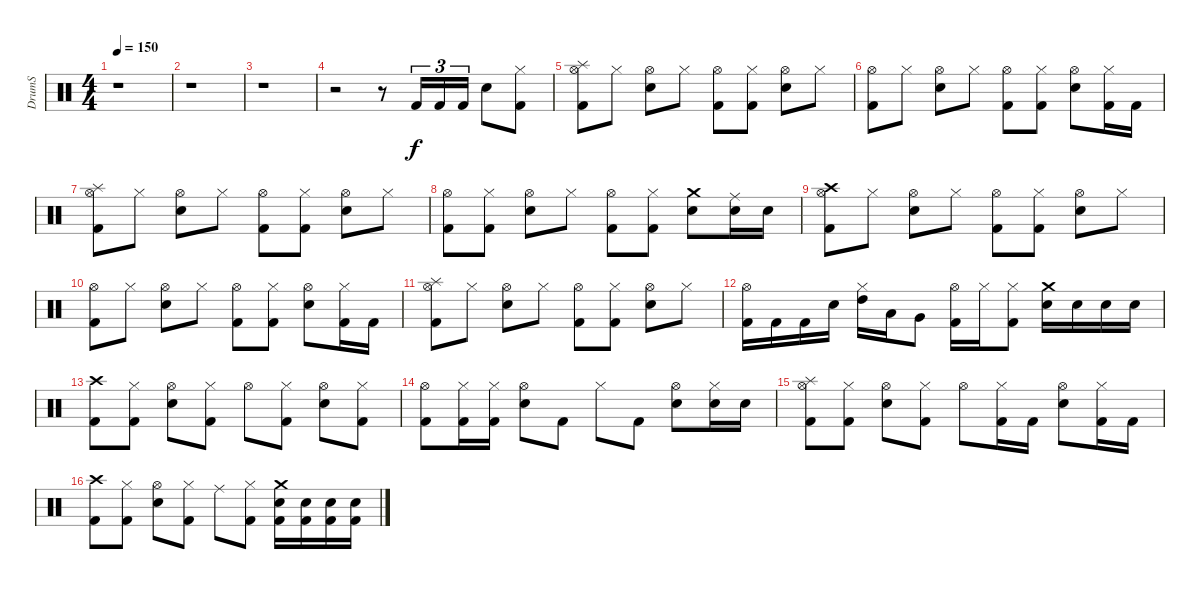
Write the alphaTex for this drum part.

\track ("DrumS" "DrumS") {instrument percussion}
\staff {score}
\articulation defaults
\ts (4 4)
\tempo 150
\clef neutral
\ks c
r.1{dy f} |
r.1 |
r.1 |
r.2 r.8 "Kick (hit) 2".16{tu (3 2)} "Kick (hit) 2".16{tu (3 2)} "Kick (hit) 2".16{tu (3 2)} "Snare (hit) 2".8 ("Hi-Hat (closed)" "Kick (hit) 2").8 |
("Splash (hit)" "Hi-Hat (open)" "Kick (hit) 2").8 "Hi-Hat (closed)".8 ("Hi-Hat (open)" "Snare (hit) 2").8 "Hi-Hat (closed)".8 ("Hi-Hat (open)" "Kick (hit) 2").8 ("Hi-Hat (closed)" "Kick (hit) 2").8 ("Hi-Hat (open)" "Snare (hit) 2").8 "Hi-Hat (closed)".8 |
("Hi-Hat (open)" "Kick (hit) 2").8 "Hi-Hat (closed)".8 ("Hi-Hat (open)" "Snare (hit) 2").8 "Hi-Hat (closed)".8 ("Hi-Hat (open)" "Kick (hit) 2").8 ("Hi-Hat (closed)" "Kick (hit) 2").8 ("Hi-Hat (open)" "Snare (hit) 2").8 ("Hi-Hat (closed)" "Kick (hit) 2").16 "Kick (hit) 2".16 |
("Splash (hit)" "Hi-Hat (open)" "Kick (hit) 2").8 "Hi-Hat (closed)".8 ("Hi-Hat (open)" "Snare (hit) 2").8 "Hi-Hat (closed)".8 ("Hi-Hat (open)" "Kick (hit) 2").8 ("Hi-Hat (closed)" "Kick (hit) 2").8 ("Hi-Hat (open)" "Snare (hit) 2").8 "Hi-Hat (closed)".8 |
("Hi-Hat (open)" "Kick (hit) 2").8 ("Hi-Hat (closed)" "Kick (hit) 2").8 ("Hi-Hat (open)" "Snare (hit) 2").8 "Hi-Hat (closed)".8 ("Hi-Hat (open)" "Kick (hit) 2").8 ("Hi-Hat (closed)" "Kick (hit) 2").8 ("Crash medium (hit)" "Snare (hit) 2").8 ("Ride (middle)" "Snare (hit) 2").16 "Snare (hit) 2".16 |
("Crash high (hit)" "Hi-Hat (open)" "Kick (hit) 2").8 "Hi-Hat (closed)".8 ("Hi-Hat (open)" "Snare (hit) 2").8 "Hi-Hat (closed)".8 ("Hi-Hat (open)" "Kick (hit) 2").8 ("Hi-Hat (closed)" "Kick (hit) 2").8 ("Hi-Hat (open)" "Snare (hit) 2").8 "Hi-Hat (closed)".8 |
("Hi-Hat (open)" "Kick (hit) 2").8 "Hi-Hat (closed)".8 ("Hi-Hat (open)" "Snare (hit) 2").8 "Hi-Hat (closed)".8 ("Hi-Hat (open)" "Kick (hit) 2").8 ("Hi-Hat (closed)" "Kick (hit) 2").8 ("Hi-Hat (open)" "Snare (hit) 2").8 ("Hi-Hat (closed)" "Kick (hit) 2").16 "Kick (hit) 2".16 |
("Splash (hit)" "Hi-Hat (open)" "Kick (hit) 2").8 "Hi-Hat (closed)".8 ("Hi-Hat (open)" "Snare (hit) 2").8 "Hi-Hat (closed)".8 ("Hi-Hat (open)" "Kick (hit) 2").8 ("Hi-Hat (closed)" "Kick (hit) 2").8 ("Hi-Hat (open)" "Snare (hit) 2").8 "Hi-Hat (closed)".8 |
("Hi-Hat (open)" "Kick (hit) 2").16 "Kick (hit) 2".16 "Kick (hit) 2".16 "Snare (hit) 2".16 ("High Tom (hit)" "Hi-Hat (closed)").16 "Low Tom (hit)".16 "Very Low Tom (hit)".8 ("Hi-Hat (open)" "Kick (hit) 2").16 "Hi-Hat (closed)".16 ("Hi-Hat (closed)" "Kick (hit) 2").8 ("Crash medium (hit)" "Snare (hit) 2").16 "Snare (hit) 2".16 "Snare (hit) 2".16 "Snare (hit) 2".16 |
("Crash high (hit)" "Kick (hit) 2").8 ("Hi-Hat (closed)" "Kick (hit) 2").8 ("Hi-Hat (open)" "Snare (hit) 2").8 ("Hi-Hat (closed)" "Kick (hit) 2").8 "Hi-Hat (open)".8 ("Hi-Hat (closed)" "Kick (hit) 2").8 ("Hi-Hat (open)" "Snare (hit) 2").8 ("Hi-Hat (closed)" "Kick (hit) 2").8 |
("Hi-Hat (open)" "Kick (hit) 2").8 ("Hi-Hat (closed)" "Kick (hit) 2").16 ("Hi-Hat (closed)" "Kick (hit) 2").16 ("Hi-Hat (open)" "Snare (hit) 2").8 "Kick (hit) 2".8 "Hi-Hat (closed)".8 "Kick (hit) 2".8 ("Hi-Hat (open)" "Snare (hit) 2").8 ("Hi-Hat (closed)" "Snare (hit) 2").16 "Snare (hit) 2".16 |
("Splash (hit)" "Hi-Hat (open)" "Kick (hit) 2").8 ("Hi-Hat (closed)" "Kick (hit) 2").8 ("Hi-Hat (open)" "Snare (hit) 2").8 ("Hi-Hat (closed)" "Kick (hit) 2").8 "Hi-Hat (open)".8 ("Hi-Hat (closed)" "Kick (hit) 2").16 "Kick (hit) 2".16 ("Hi-Hat (open)" "Snare (hit) 2").8 ("Hi-Hat (closed)" "Kick (hit) 2").16 "Kick (hit) 2".16 |
("Crash high (hit)" "Kick (hit) 2").8 ("Hi-Hat (closed)" "Kick (hit) 2").8 ("Hi-Hat (open)" "Snare (hit) 2").8 ("Hi-Hat (closed)" "Kick (hit) 2").8 "Ride (middle)".8 ("Hi-Hat (closed)" "Kick (hit) 2").8 ("Crash medium (hit)" "Snare (hit) 2" "Kick (hit) 2").16 ("Snare (hit) 2" "Kick (hit) 2").16 ("Snare (hit) 2" "Kick (hit) 2").16 ("Snare (hit) 2" "Kick (hit) 2").16
